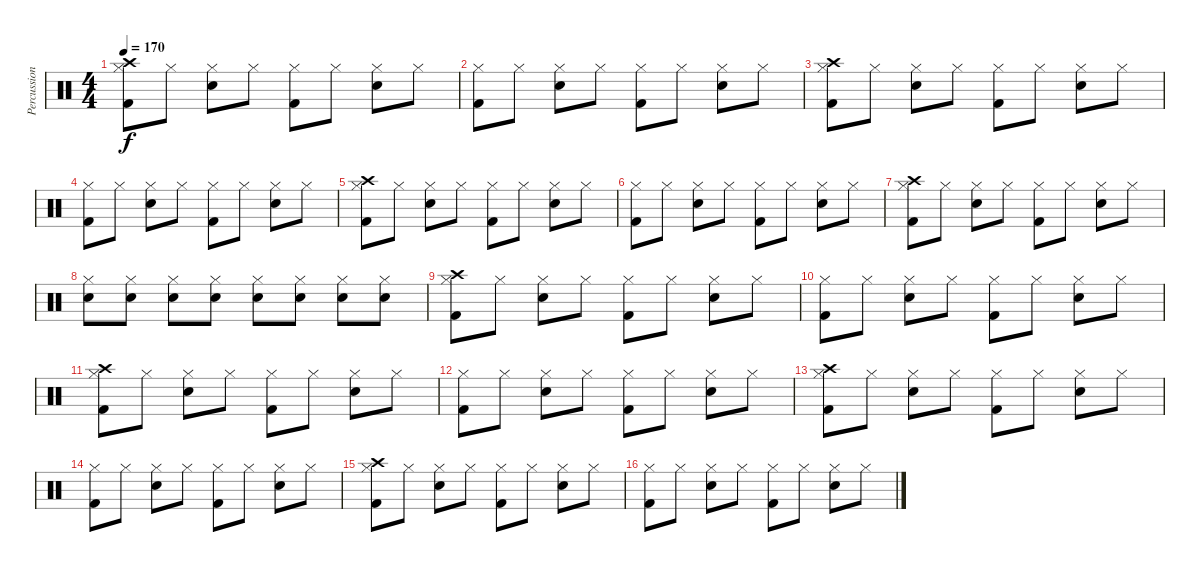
\track ("Percussion" "Percussion") {instrument percussion}
\staff {score}
\articulation defaults
\ts (4 4)
\tempo 170
\clef neutral
\ks c
("Hi-Hat (closed)" "Crash high (hit)" "Kick (hit) 2").8{dy f} "Hi-Hat (closed)".8 ("Hi-Hat (closed)" "Snare (hit) 2").8 "Hi-Hat (closed)".8 ("Hi-Hat (closed)" "Kick (hit) 2").8 "Hi-Hat (closed)".8 ("Hi-Hat (closed)" "Snare (hit) 2").8 "Hi-Hat (closed)".8 |
("Hi-Hat (closed)" "Kick (hit) 2").8 "Hi-Hat (closed)".8 ("Hi-Hat (closed)" "Snare (hit) 2").8 "Hi-Hat (closed)".8 ("Hi-Hat (closed)" "Kick (hit) 2").8 "Hi-Hat (closed)".8 ("Hi-Hat (closed)" "Snare (hit) 2").8 "Hi-Hat (closed)".8 |
("Hi-Hat (closed)" "Crash high (hit)" "Kick (hit) 2").8 "Hi-Hat (closed)".8 ("Hi-Hat (closed)" "Snare (hit) 2").8 "Hi-Hat (closed)".8 ("Hi-Hat (closed)" "Kick (hit) 2").8 "Hi-Hat (closed)".8 ("Hi-Hat (closed)" "Snare (hit) 2").8 "Hi-Hat (closed)".8 |
("Hi-Hat (closed)" "Kick (hit) 2").8 "Hi-Hat (closed)".8 ("Hi-Hat (closed)" "Snare (hit) 2").8 "Hi-Hat (closed)".8 ("Hi-Hat (closed)" "Kick (hit) 2").8 "Hi-Hat (closed)".8 ("Hi-Hat (closed)" "Snare (hit) 2").8 "Hi-Hat (closed)".8 |
("Hi-Hat (closed)" "Crash high (hit)" "Kick (hit) 2").8 "Hi-Hat (closed)".8 ("Hi-Hat (closed)" "Snare (hit) 2").8 "Hi-Hat (closed)".8 ("Hi-Hat (closed)" "Kick (hit) 2").8 "Hi-Hat (closed)".8 ("Hi-Hat (closed)" "Snare (hit) 2").8 "Hi-Hat (closed)".8 |
("Hi-Hat (closed)" "Kick (hit) 2").8 "Hi-Hat (closed)".8 ("Hi-Hat (closed)" "Snare (hit) 2").8 "Hi-Hat (closed)".8 ("Hi-Hat (closed)" "Kick (hit) 2").8 "Hi-Hat (closed)".8 ("Hi-Hat (closed)" "Snare (hit) 2").8 "Hi-Hat (closed)".8 |
("Hi-Hat (closed)" "Crash high (hit)" "Kick (hit) 2").8 "Hi-Hat (closed)".8 ("Hi-Hat (closed)" "Snare (hit) 2").8 "Hi-Hat (closed)".8 ("Hi-Hat (closed)" "Kick (hit) 2").8 "Hi-Hat (closed)".8 ("Hi-Hat (closed)" "Snare (hit) 2").8 "Hi-Hat (closed)".8 |
("Hi-Hat (closed)" "Snare (hit) 2").8 ("Hi-Hat (closed)" "Snare (hit) 2").8 ("Hi-Hat (closed)" "Snare (hit) 2").8 ("Hi-Hat (closed)" "Snare (hit) 2").8 ("Hi-Hat (closed)" "Snare (hit) 2").8 ("Hi-Hat (closed)" "Snare (hit) 2").8 ("Hi-Hat (closed)" "Snare (hit) 2").8 ("Hi-Hat (closed)" "Snare (hit) 2").8 |
("Hi-Hat (closed)" "Crash high (hit)" "Kick (hit) 2").8 "Hi-Hat (closed)".8 ("Hi-Hat (closed)" "Snare (hit) 2").8 "Hi-Hat (closed)".8 ("Hi-Hat (closed)" "Kick (hit) 2").8 "Hi-Hat (closed)".8 ("Hi-Hat (closed)" "Snare (hit) 2").8 "Hi-Hat (closed)".8 |
("Hi-Hat (closed)" "Kick (hit) 2").8 "Hi-Hat (closed)".8 ("Hi-Hat (closed)" "Snare (hit) 2").8 "Hi-Hat (closed)".8 ("Hi-Hat (closed)" "Kick (hit) 2").8 "Hi-Hat (closed)".8 ("Hi-Hat (closed)" "Snare (hit) 2").8 "Hi-Hat (closed)".8 |
("Hi-Hat (closed)" "Crash high (hit)" "Kick (hit) 2").8 "Hi-Hat (closed)".8 ("Hi-Hat (closed)" "Snare (hit) 2").8 "Hi-Hat (closed)".8 ("Hi-Hat (closed)" "Kick (hit) 2").8 "Hi-Hat (closed)".8 ("Hi-Hat (closed)" "Snare (hit) 2").8 "Hi-Hat (closed)".8 |
("Hi-Hat (closed)" "Kick (hit) 2").8 "Hi-Hat (closed)".8 ("Hi-Hat (closed)" "Snare (hit) 2").8 "Hi-Hat (closed)".8 ("Hi-Hat (closed)" "Kick (hit) 2").8 "Hi-Hat (closed)".8 ("Hi-Hat (closed)" "Snare (hit) 2").8 "Hi-Hat (closed)".8 |
("Hi-Hat (closed)" "Crash high (hit)" "Kick (hit) 2").8 "Hi-Hat (closed)".8 ("Hi-Hat (closed)" "Snare (hit) 2").8 "Hi-Hat (closed)".8 ("Hi-Hat (closed)" "Kick (hit) 2").8 "Hi-Hat (closed)".8 ("Hi-Hat (closed)" "Snare (hit) 2").8 "Hi-Hat (closed)".8 |
("Hi-Hat (closed)" "Kick (hit) 2").8 "Hi-Hat (closed)".8 ("Hi-Hat (closed)" "Snare (hit) 2").8 "Hi-Hat (closed)".8 ("Hi-Hat (closed)" "Kick (hit) 2").8 "Hi-Hat (closed)".8 ("Hi-Hat (closed)" "Snare (hit) 2").8 "Hi-Hat (closed)".8 |
("Hi-Hat (closed)" "Crash high (hit)" "Kick (hit) 2").8 "Hi-Hat (closed)".8 ("Hi-Hat (closed)" "Snare (hit) 2").8 "Hi-Hat (closed)".8 ("Hi-Hat (closed)" "Kick (hit) 2").8 "Hi-Hat (closed)".8 ("Hi-Hat (closed)" "Snare (hit) 2").8 "Hi-Hat (closed)".8 |
("Hi-Hat (closed)" "Kick (hit) 2").8 "Hi-Hat (closed)".8 ("Hi-Hat (closed)" "Snare (hit) 2").8 "Hi-Hat (closed)".8 ("Hi-Hat (closed)" "Kick (hit) 2").8 "Hi-Hat (closed)".8 ("Hi-Hat (closed)" "Snare (hit) 2").8 "Hi-Hat (closed)".8
